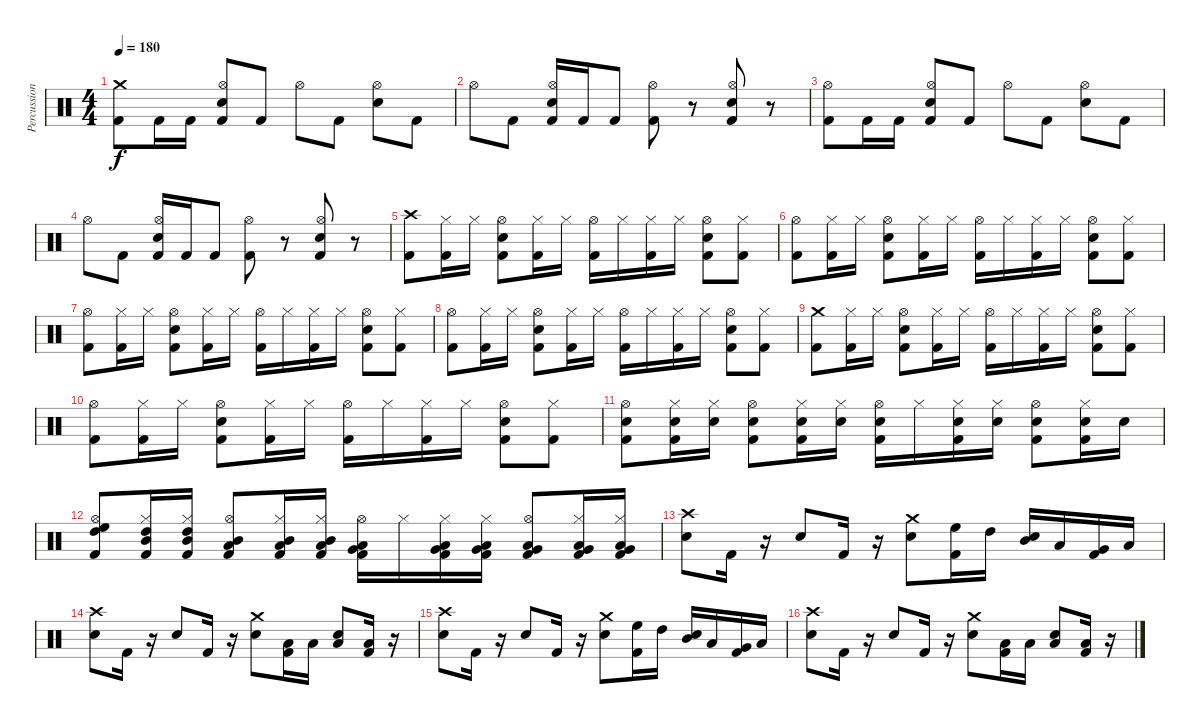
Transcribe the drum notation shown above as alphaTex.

\track ("Percussion" "Percussion") {instrument percussion}
\staff {score}
\articulation defaults
\ts (4 4)
\tempo 180
\clef neutral
\ks c
("Crash medium (hit)" "Kick (hit) 2").8{dy f} "Kick (hit) 2".16 "Kick (hit) 2".16 ("Hi-Hat (open)" "Electric Snare (hit)" "Kick (hit) 2").8 "Kick (hit) 2".8 "Hi-Hat (open)".8 "Kick (hit) 2".8 ("Hi-Hat (open)" "Electric Snare (hit)").8 "Kick (hit) 2".8 |
"Hi-Hat (open)".8 "Kick (hit) 2".8 ("Hi-Hat (open)" "Electric Snare (hit)" "Kick (hit) 2").16 "Kick (hit) 2".16 "Kick (hit) 2".8 ("Hi-Hat (open)" "Kick (hit) 2").8 r.8 ("Hi-Hat (open)" "Electric Snare (hit)" "Kick (hit) 2").8 r.8 |
("Hi-Hat (open)" "Kick (hit) 2").8 "Kick (hit) 2".16 "Kick (hit) 2".16 ("Hi-Hat (open)" "Electric Snare (hit)" "Kick (hit) 2").8 "Kick (hit) 2".8 "Hi-Hat (open)".8 "Kick (hit) 2".8 ("Hi-Hat (open)" "Electric Snare (hit)").8 "Kick (hit) 2".8 |
"Hi-Hat (open)".8 "Kick (hit) 2".8 ("Hi-Hat (open)" "Electric Snare (hit)" "Kick (hit) 2").16 "Kick (hit) 2".16 "Kick (hit) 2".8 ("Hi-Hat (open)" "Kick (hit) 2").8 r.8 ("Hi-Hat (open)" "Electric Snare (hit)" "Kick (hit) 2").8 r.8 |
("Crash high (hit)" "Kick (hit) 2").8 ("Hi-Hat (closed)" "Kick (hit) 2").16 "Hi-Hat (closed)".16 ("Hi-Hat (open)" "Electric Snare (hit)" "Kick (hit) 2").8 ("Hi-Hat (closed)" "Kick (hit) 2").16 "Hi-Hat (closed)".16 ("Hi-Hat (open)" "Kick (hit) 2").16 "Hi-Hat (closed)".16 ("Hi-Hat (closed)" "Kick (hit) 2").16 "Hi-Hat (closed)".16 ("Hi-Hat (open)" "Electric Snare (hit)" "Kick (hit) 2").8 ("Hi-Hat (closed)" "Kick (hit) 2").8 |
("Hi-Hat (open)" "Kick (hit) 2").8 ("Hi-Hat (closed)" "Kick (hit) 2").16 "Hi-Hat (closed)".16 ("Hi-Hat (open)" "Electric Snare (hit)" "Kick (hit) 2").8 ("Hi-Hat (closed)" "Kick (hit) 2").16 "Hi-Hat (closed)".16 ("Hi-Hat (open)" "Kick (hit) 2").16 "Hi-Hat (closed)".16 ("Hi-Hat (closed)" "Kick (hit) 2").16 "Hi-Hat (closed)".16 ("Hi-Hat (open)" "Electric Snare (hit)" "Kick (hit) 2").8 ("Hi-Hat (closed)" "Kick (hit) 2").8 |
("Hi-Hat (open)" "Kick (hit) 2").8 ("Hi-Hat (closed)" "Kick (hit) 2").16 "Hi-Hat (closed)".16 ("Hi-Hat (open)" "Electric Snare (hit)" "Kick (hit) 2").8 ("Hi-Hat (closed)" "Kick (hit) 2").16 "Hi-Hat (closed)".16 ("Hi-Hat (open)" "Kick (hit) 2").16 "Hi-Hat (closed)".16 ("Hi-Hat (closed)" "Kick (hit) 2").16 "Hi-Hat (closed)".16 ("Hi-Hat (open)" "Electric Snare (hit)" "Kick (hit) 2").8 ("Hi-Hat (closed)" "Kick (hit) 2").8 |
("Hi-Hat (open)" "Kick (hit) 2").8 ("Hi-Hat (closed)" "Kick (hit) 2").16 "Hi-Hat (closed)".16 ("Hi-Hat (open)" "Electric Snare (hit)" "Kick (hit) 2").8 ("Hi-Hat (closed)" "Kick (hit) 2").16 "Hi-Hat (closed)".16 ("Hi-Hat (open)" "Kick (hit) 2").16 "Hi-Hat (closed)".16 ("Hi-Hat (closed)" "Kick (hit) 2").16 "Hi-Hat (closed)".16 ("Hi-Hat (open)" "Electric Snare (hit)" "Kick (hit) 2").8 ("Hi-Hat (closed)" "Kick (hit) 2").8 |
("Crash medium (hit)" "Kick (hit) 2").8 ("Hi-Hat (closed)" "Kick (hit) 2").16 "Hi-Hat (closed)".16 ("Hi-Hat (open)" "Electric Snare (hit)" "Kick (hit) 2").8 ("Hi-Hat (closed)" "Kick (hit) 2").16 "Hi-Hat (closed)".16 ("Hi-Hat (open)" "Kick (hit) 2").16 "Hi-Hat (closed)".16 ("Hi-Hat (closed)" "Kick (hit) 2").16 "Hi-Hat (closed)".16 ("Hi-Hat (open)" "Electric Snare (hit)" "Kick (hit) 2").8 ("Hi-Hat (closed)" "Kick (hit) 2").8 |
("Hi-Hat (open)" "Kick (hit) 2").8 ("Hi-Hat (closed)" "Kick (hit) 2").16 "Hi-Hat (closed)".16 ("Hi-Hat (open)" "Electric Snare (hit)" "Kick (hit) 2").8 ("Hi-Hat (closed)" "Kick (hit) 2").16 "Hi-Hat (closed)".16 ("Hi-Hat (open)" "Kick (hit) 2").16 "Hi-Hat (closed)".16 ("Hi-Hat (closed)" "Kick (hit) 2").16 "Hi-Hat (closed)".16 ("Hi-Hat (open)" "Electric Snare (hit)" "Kick (hit) 2").8 ("Hi-Hat (closed)" "Kick (hit) 2").8 |
("Hi-Hat (open)" "Electric Snare (hit)" "Kick (hit) 2").8 ("Hi-Hat (closed)" "Electric Snare (hit)" "Kick (hit) 2").16 ("Hi-Hat (closed)" "Electric Snare (hit)").16 ("Hi-Hat (open)" "Electric Snare (hit)" "Kick (hit) 2").8 ("Hi-Hat (closed)" "Electric Snare (hit)" "Kick (hit) 2").16 ("Hi-Hat (closed)" "Electric Snare (hit)").16 ("Hi-Hat (open)" "Electric Snare (hit)" "Kick (hit) 2").16 "Hi-Hat (closed)".16 ("Hi-Hat (closed)" "Electric Snare (hit)" "Kick (hit) 2").16 ("Hi-Hat (closed)" "Electric Snare (hit)").16 ("Hi-Hat (open)" "Electric Snare (hit)" "Kick (hit) 2").8 ("Hi-Hat (closed)" "Electric Snare (hit)" "Kick (hit) 2").16 "Electric Snare (hit)".16 |
("Hi-Hat (open)" "High Floor Tom (hit)" "High Tom (hit)" "Kick (hit) 2").8 ("Hi-Hat (closed)" "High Tom (hit)" "Mid Tom (hit)" "Kick (hit) 2").16 ("Hi-Hat (closed)" "High Tom (hit)" "Mid Tom (hit)" "Kick (hit) 2").16 ("Hi-Hat (open)" "Mid Tom (hit)" "Low Tom (hit)" "Kick (hit) 2").8 ("Hi-Hat (closed)" "Mid Tom (hit)" "Low Tom (hit)" "Kick (hit) 2").16 ("Hi-Hat (closed)" "Mid Tom (hit)" "Low Tom (hit)" "Kick (hit) 2").16 ("Hi-Hat (open)" "Low Tom (hit)" "Very Low Tom (hit)" "Kick (hit) 2").16 "Hi-Hat (closed)".16 ("Hi-Hat (closed)" "Low Tom (hit)" "Very Low Tom (hit)" "Kick (hit) 2").16 ("Hi-Hat (closed)" "Low Tom (hit)" "Very Low Tom (hit)" "Kick (hit) 2").16 ("Hi-Hat (open)" "Very Low Tom (hit)" "Low Floor Tom (hit)" "Kick (hit) 2").8 ("Hi-Hat (closed)" "Very Low Tom (hit)" "Low Floor Tom (hit)" "Kick (hit) 2").16 ("Hi-Hat (closed)" "Very Low Tom (hit)" "Low Floor Tom (hit)" "Kick (hit) 2").16 |
("Crash high (hit)" "Electric Snare (hit)").8 "Kick (hit) 2".16 r.16 "Electric Snare (hit)".8 "Kick (hit) 2".16 r.16 ("Crash medium (hit)" "Electric Snare (hit)").8 ("High Floor Tom (hit)" "Kick (hit) 2").16 "High Tom (hit)".16 ("Mid Tom (hit)" "Electric Snare (hit)").16 "Low Tom (hit)".16 ("Very Low Tom (hit)" "Kick (hit) 2").16 "Low Floor Tom (hit)".16 |
("Crash high (hit)" "Electric Snare (hit)").8 "Kick (hit) 2".16 r.16 "Electric Snare (hit)".8 "Kick (hit) 2".16 r.16 ("Crash medium (hit)" "Electric Snare (hit)").8 ("Low Floor Tom (hit)" "Kick (hit) 2").16 "Low Floor Tom (hit)".16 ("Low Floor Tom (hit)" "Electric Snare (hit)").8 ("Low Floor Tom (hit)" "Kick (hit) 2").16 r.16 |
("Crash high (hit)" "Electric Snare (hit)").8 "Kick (hit) 2".16 r.16 "Electric Snare (hit)".8 "Kick (hit) 2".16 r.16 ("Crash medium (hit)" "Electric Snare (hit)").8 ("High Floor Tom (hit)" "Kick (hit) 2").16 "High Tom (hit)".16 ("Mid Tom (hit)" "Electric Snare (hit)").16 "Low Tom (hit)".16 ("Very Low Tom (hit)" "Kick (hit) 2").16 "Low Floor Tom (hit)".16 |
("Crash high (hit)" "Electric Snare (hit)").8 "Kick (hit) 2".16 r.16 "Electric Snare (hit)".8 "Kick (hit) 2".16 r.16 ("Crash medium (hit)" "Electric Snare (hit)").8 ("Low Floor Tom (hit)" "Kick (hit) 2").16 "Low Floor Tom (hit)".16 ("Low Floor Tom (hit)" "Electric Snare (hit)").8 ("Low Floor Tom (hit)" "Kick (hit) 2").16 r.16
